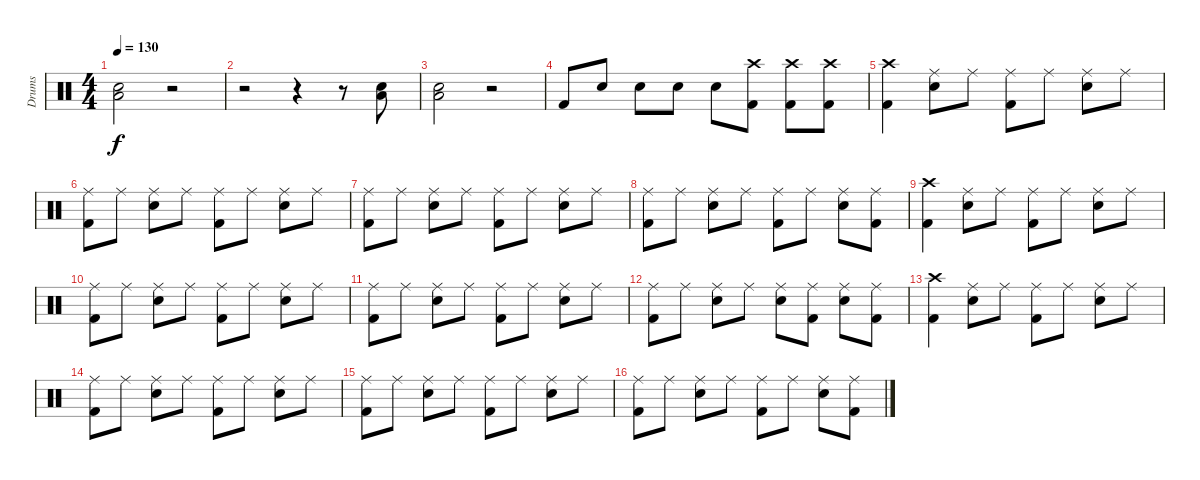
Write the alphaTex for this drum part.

\track ("Drums" "Drums") {instrument percussion}
\staff {score}
\articulation defaults
\ts (4 4)
\tempo 130
\clef neutral
\ks c
("Electric Snare (hit)" "Low Tom (hit)").2{dy f} r.2 |
r.2 r.4 r.8 ("Electric Snare (hit)" "Low Tom (hit)").8 |
("Electric Snare (hit)" "Low Tom (hit)").2 r.2 |
"Kick (hit) 2".8 "Electric Snare (hit)".8 "Electric Snare (hit)".8 "Electric Snare (hit)".8 "Electric Snare (hit)".8 ("Crash high (hit)" "Kick (hit) 2").8 ("Crash high (hit)" "Kick (hit) 2").8 ("Crash high (hit)" "Kick (hit) 2").8 |
("Crash high (hit)" "Kick (hit) 2").4 ("Ride (middle)" "Electric Snare (hit)").8 "Ride (middle)".8 ("Ride (middle)" "Kick (hit) 2").8 "Ride (middle)".8 ("Ride (middle)" "Electric Snare (hit)").8 "Ride (middle)".8 |
("Ride (middle)" "Kick (hit) 2").8 "Ride (middle)".8 ("Ride (middle)" "Electric Snare (hit)").8 "Ride (middle)".8 ("Ride (middle)" "Kick (hit) 2").8 "Ride (middle)".8 ("Ride (middle)" "Electric Snare (hit)").8 "Ride (middle)".8 |
("Ride (middle)" "Kick (hit) 2").8 "Ride (middle)".8 ("Ride (middle)" "Electric Snare (hit)").8 "Ride (middle)".8 ("Ride (middle)" "Kick (hit) 2").8 "Ride (middle)".8 ("Ride (middle)" "Electric Snare (hit)").8 "Ride (middle)".8 |
("Ride (middle)" "Kick (hit) 2").8 "Ride (middle)".8 ("Ride (middle)" "Electric Snare (hit)").8 "Ride (middle)".8 ("Ride (middle)" "Kick (hit) 2").8 "Ride (middle)".8 ("Ride (middle)" "Electric Snare (hit)").8 ("Ride (middle)" "Kick (hit) 2").8 |
("Crash high (hit)" "Kick (hit) 2").4 ("Ride (middle)" "Electric Snare (hit)").8 "Ride (middle)".8 ("Ride (middle)" "Kick (hit) 2").8 "Ride (middle)".8 ("Ride (middle)" "Electric Snare (hit)").8 "Ride (middle)".8 |
("Ride (middle)" "Kick (hit) 2").8 "Ride (middle)".8 ("Ride (middle)" "Electric Snare (hit)").8 "Ride (middle)".8 ("Ride (middle)" "Kick (hit) 2").8 "Ride (middle)".8 ("Ride (middle)" "Electric Snare (hit)").8 "Ride (middle)".8 |
("Ride (middle)" "Kick (hit) 2").8 "Ride (middle)".8 ("Ride (middle)" "Electric Snare (hit)").8 "Ride (middle)".8 ("Ride (middle)" "Kick (hit) 2").8 "Ride (middle)".8 ("Ride (middle)" "Electric Snare (hit)").8 "Ride (middle)".8 |
("Ride (middle)" "Kick (hit) 2").8 "Ride (middle)".8 ("Ride (middle)" "Electric Snare (hit)").8 "Ride (middle)".8 ("Ride (middle)" "Electric Snare (hit)").8 ("Ride (middle)" "Kick (hit) 2").8 ("Ride (middle)" "Electric Snare (hit)").8 ("Ride (middle)" "Kick (hit) 2").8 |
("Crash high (hit)" "Kick (hit) 2").4 ("Ride (middle)" "Electric Snare (hit)").8 "Ride (middle)".8 ("Ride (middle)" "Kick (hit) 2").8 "Ride (middle)".8 ("Ride (middle)" "Electric Snare (hit)").8 "Ride (middle)".8 |
("Ride (middle)" "Kick (hit) 2").8 "Ride (middle)".8 ("Ride (middle)" "Electric Snare (hit)").8 "Ride (middle)".8 ("Ride (middle)" "Kick (hit) 2").8 "Ride (middle)".8 ("Ride (middle)" "Electric Snare (hit)").8 "Ride (middle)".8 |
("Ride (middle)" "Kick (hit) 2").8 "Ride (middle)".8 ("Ride (middle)" "Electric Snare (hit)").8 "Ride (middle)".8 ("Ride (middle)" "Kick (hit) 2").8 "Ride (middle)".8 ("Ride (middle)" "Electric Snare (hit)").8 "Ride (middle)".8 |
("Ride (middle)" "Kick (hit) 2").8 "Ride (middle)".8 ("Ride (middle)" "Electric Snare (hit)").8 "Ride (middle)".8 ("Ride (middle)" "Kick (hit) 2").8 "Ride (middle)".8 ("Ride (middle)" "Electric Snare (hit)").8 ("Ride (middle)" "Kick (hit) 2").8
